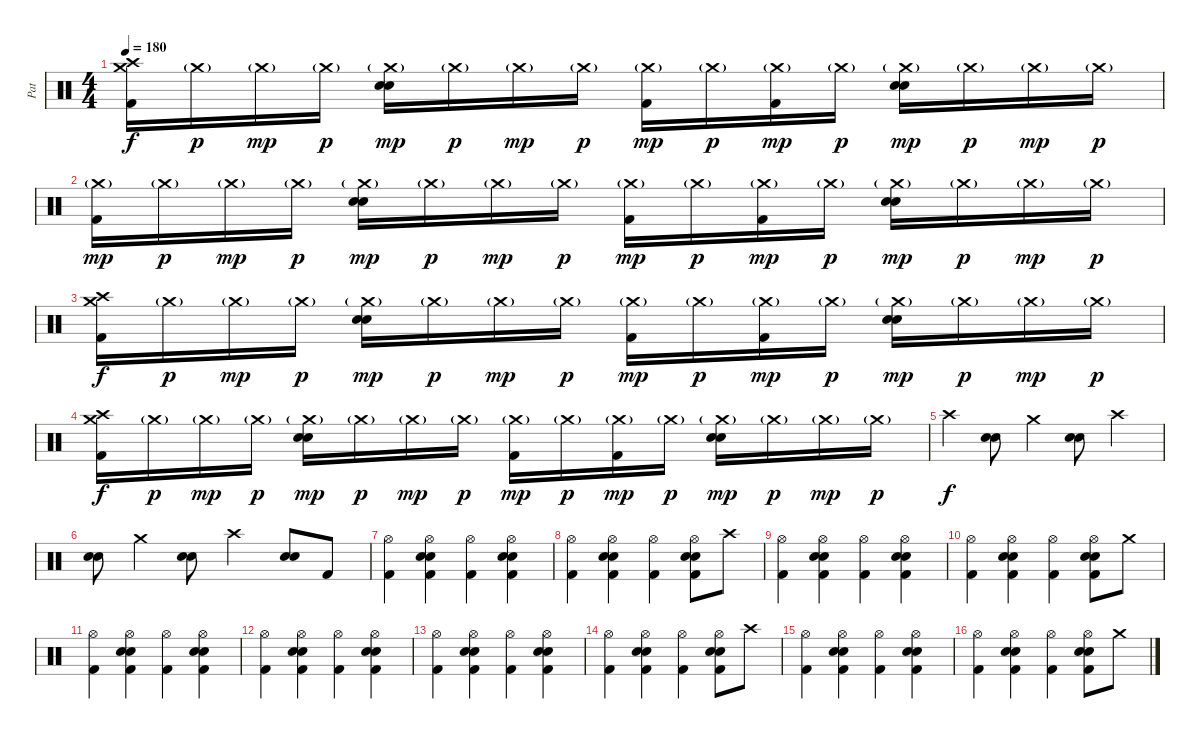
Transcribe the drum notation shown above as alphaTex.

\track ("Pat" "Pat") {instrument percussion}
\staff {score}
\articulation defaults
\ts (4 4)
\tempo 180
\clef neutral
\ks c
("Crash medium (hit)" "Crash high (hit)" "Kick (hit) 2").16{dy f} "Crash medium (hit)"{g}.16{dy p} "Crash medium (hit)"{g}.16{dy mp} "Crash medium (hit)"{g}.16{dy p} ("Crash medium (hit)"{g} "Snare (hit) 2" "Electric Snare (hit)").16{dy mp} "Crash medium (hit)"{g}.16{dy p} "Crash medium (hit)"{g}.16{dy mp} "Crash medium (hit)"{g}.16{dy p} ("Crash medium (hit)"{g} "Kick (hit) 2").16{dy mp} "Crash medium (hit)"{g}.16{dy p} ("Crash medium (hit)"{g} "Kick (hit) 2").16{dy mp} "Crash medium (hit)"{g}.16{dy p} ("Crash medium (hit)"{g} "Snare (hit) 2" "Electric Snare (hit)").16{dy mp} "Crash medium (hit)"{g}.16{dy p} "Crash medium (hit)"{g}.16{dy mp} "Crash medium (hit)"{g}.16{dy p} |
("Crash medium (hit)"{g} "Kick (hit) 2").16{dy mp} "Crash medium (hit)"{g}.16{dy p} "Crash medium (hit)"{g}.16{dy mp} "Crash medium (hit)"{g}.16{dy p} ("Crash medium (hit)"{g} "Snare (hit) 2" "Electric Snare (hit)").16{dy mp} "Crash medium (hit)"{g}.16{dy p} "Crash medium (hit)"{g}.16{dy mp} "Crash medium (hit)"{g}.16{dy p} ("Crash medium (hit)"{g} "Kick (hit) 2").16{dy mp} "Crash medium (hit)"{g}.16{dy p} ("Crash medium (hit)"{g} "Kick (hit) 2").16{dy mp} "Crash medium (hit)"{g}.16{dy p} ("Crash medium (hit)"{g} "Snare (hit) 2" "Electric Snare (hit)").16{dy mp} "Crash medium (hit)"{g}.16{dy p} "Crash medium (hit)"{g}.16{dy mp} "Crash medium (hit)"{g}.16{dy p} |
("Crash medium (hit)" "Crash high (hit)" "Kick (hit) 2").16{dy f} "Crash medium (hit)"{g}.16{dy p} "Crash medium (hit)"{g}.16{dy mp} "Crash medium (hit)"{g}.16{dy p} ("Crash medium (hit)"{g} "Snare (hit) 2" "Electric Snare (hit)").16{dy mp} "Crash medium (hit)"{g}.16{dy p} "Crash medium (hit)"{g}.16{dy mp} "Crash medium (hit)"{g}.16{dy p} ("Crash medium (hit)"{g} "Kick (hit) 2").16{dy mp} "Crash medium (hit)"{g}.16{dy p} ("Crash medium (hit)"{g} "Kick (hit) 2").16{dy mp} "Crash medium (hit)"{g}.16{dy p} ("Crash medium (hit)"{g} "Snare (hit) 2" "Electric Snare (hit)").16{dy mp} "Crash medium (hit)"{g}.16{dy p} "Crash medium (hit)"{g}.16{dy mp} "Crash medium (hit)"{g}.16{dy p} |
("Crash medium (hit)" "Crash high (hit)" "Kick (hit) 2").16{dy f} "Crash medium (hit)"{g}.16{dy p} "Crash medium (hit)"{g}.16{dy mp} "Crash medium (hit)"{g}.16{dy p} ("Crash medium (hit)"{g} "Snare (hit) 2" "Electric Snare (hit)").16{dy mp} "Crash medium (hit)"{g}.16{dy p} "Crash medium (hit)"{g}.16{dy mp} "Crash medium (hit)"{g}.16{dy p} ("Crash medium (hit)"{g} "Kick (hit) 2").16{dy mp} "Crash medium (hit)"{g}.16{dy p} ("Crash medium (hit)"{g} "Kick (hit) 2").16{dy mp} "Crash medium (hit)"{g}.16{dy p} ("Crash medium (hit)"{g} "Snare (hit) 2" "Electric Snare (hit)").16{dy mp} "Crash medium (hit)"{g}.16{dy p} "Crash medium (hit)"{g}.16{dy mp} "Crash medium (hit)"{g}.16{dy p} |
"Crash high (hit)".4{dy f} ("Snare (hit) 2" "Electric Snare (hit)").8 "Crash medium (hit)".4 ("Snare (hit) 2" "Electric Snare (hit)").8 "Crash high (hit)".4 |
("Snare (hit) 2" "Electric Snare (hit)").8 "Crash medium (hit)".4 ("Snare (hit) 2" "Electric Snare (hit)").8 "Crash high (hit)".4 ("Snare (hit) 2" "Electric Snare (hit)").8 "Kick (hit) 2".8 |
("Hi-Hat (open)" "Kick (hit) 2").4 ("Hi-Hat (open)" "Snare (hit) 2" "Electric Snare (hit)" "Kick (hit) 2").4 ("Hi-Hat (open)" "Kick (hit) 2").4 ("Hi-Hat (open)" "Snare (hit) 2" "Electric Snare (hit)" "Kick (hit) 2").4 |
("Hi-Hat (open)" "Kick (hit) 2").4 ("Hi-Hat (open)" "Snare (hit) 2" "Electric Snare (hit)" "Kick (hit) 2").4 ("Hi-Hat (open)" "Kick (hit) 2").4 ("Hi-Hat (open)" "Snare (hit) 2" "Electric Snare (hit)" "Kick (hit) 2").8 "Crash high (hit)".8 |
("Hi-Hat (open)" "Kick (hit) 2").4 ("Hi-Hat (open)" "Snare (hit) 2" "Electric Snare (hit)" "Kick (hit) 2").4 ("Hi-Hat (open)" "Kick (hit) 2").4 ("Hi-Hat (open)" "Snare (hit) 2" "Electric Snare (hit)" "Kick (hit) 2").4 |
("Hi-Hat (open)" "Kick (hit) 2").4 ("Hi-Hat (open)" "Snare (hit) 2" "Electric Snare (hit)" "Kick (hit) 2").4 ("Hi-Hat (open)" "Kick (hit) 2").4 ("Hi-Hat (open)" "Snare (hit) 2" "Electric Snare (hit)" "Kick (hit) 2").8 "Crash medium (hit)".8 |
("Hi-Hat (open)" "Kick (hit) 2").4 ("Hi-Hat (open)" "Snare (hit) 2" "Electric Snare (hit)" "Kick (hit) 2").4 ("Hi-Hat (open)" "Kick (hit) 2").4 ("Hi-Hat (open)" "Snare (hit) 2" "Electric Snare (hit)" "Kick (hit) 2").4 |
("Hi-Hat (open)" "Kick (hit) 2").4 ("Hi-Hat (open)" "Snare (hit) 2" "Electric Snare (hit)" "Kick (hit) 2").4 ("Hi-Hat (open)" "Kick (hit) 2").4 ("Hi-Hat (open)" "Snare (hit) 2" "Electric Snare (hit)" "Kick (hit) 2").4 |
("Hi-Hat (open)" "Kick (hit) 2").4 ("Hi-Hat (open)" "Snare (hit) 2" "Electric Snare (hit)" "Kick (hit) 2").4 ("Hi-Hat (open)" "Kick (hit) 2").4 ("Hi-Hat (open)" "Snare (hit) 2" "Electric Snare (hit)" "Kick (hit) 2").4 |
("Hi-Hat (open)" "Kick (hit) 2").4 ("Hi-Hat (open)" "Snare (hit) 2" "Electric Snare (hit)" "Kick (hit) 2").4 ("Hi-Hat (open)" "Kick (hit) 2").4 ("Hi-Hat (open)" "Snare (hit) 2" "Electric Snare (hit)" "Kick (hit) 2").8 "Crash high (hit)".8 |
("Hi-Hat (open)" "Kick (hit) 2").4 ("Hi-Hat (open)" "Snare (hit) 2" "Electric Snare (hit)" "Kick (hit) 2").4 ("Hi-Hat (open)" "Kick (hit) 2").4 ("Hi-Hat (open)" "Snare (hit) 2" "Electric Snare (hit)" "Kick (hit) 2").4 |
("Hi-Hat (open)" "Kick (hit) 2").4 ("Hi-Hat (open)" "Snare (hit) 2" "Electric Snare (hit)" "Kick (hit) 2").4 ("Hi-Hat (open)" "Kick (hit) 2").4 ("Hi-Hat (open)" "Snare (hit) 2" "Electric Snare (hit)" "Kick (hit) 2").8 "Crash medium (hit)".8
